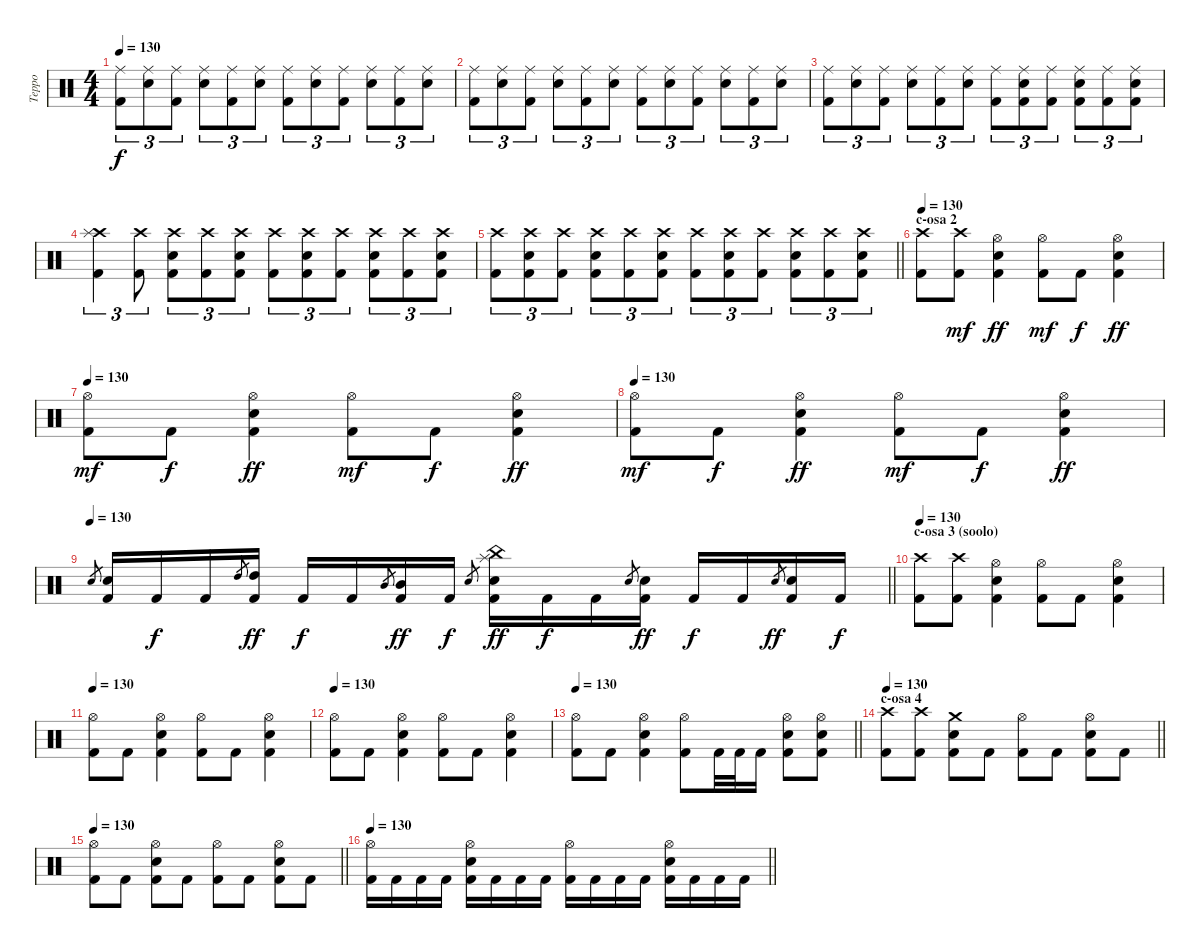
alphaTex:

\track ("Teppo" "Teppo") {instrument percussion}
\staff {score}
\articulation defaults
\ts (4 4)
\tempo 130
\clef neutral
\ks c
("Ride (middle)" "Kick (hit) 2").8{tu (3 2) dy f} ("Ride (middle)" "Electric Snare (hit)").8{tu (3 2)} ("Ride (middle)" "Kick (hit) 2").8{tu (3 2)} ("Ride (middle)" "Electric Snare (hit)").8{tu (3 2)} ("Ride (middle)" "Kick (hit) 2").8{tu (3 2)} ("Ride (middle)" "Electric Snare (hit)").8{tu (3 2)} ("Ride (middle)" "Kick (hit) 2").8{tu (3 2)} ("Ride (middle)" "Electric Snare (hit)").8{tu (3 2)} ("Ride (middle)" "Kick (hit) 2").8{tu (3 2)} ("Ride (middle)" "Electric Snare (hit)").8{tu (3 2)} ("Ride (middle)" "Kick (hit) 2").8{tu (3 2)} ("Ride (middle)" "Electric Snare (hit)").8{tu (3 2)} |
("Ride (middle)" "Kick (hit) 2").8{tu (3 2)} ("Ride (middle)" "Electric Snare (hit)").8{tu (3 2)} ("Ride (middle)" "Kick (hit) 2").8{tu (3 2)} ("Ride (middle)" "Electric Snare (hit)").8{tu (3 2)} ("Ride (middle)" "Kick (hit) 2").8{tu (3 2)} ("Ride (middle)" "Electric Snare (hit)").8{tu (3 2)} ("Ride (middle)" "Kick (hit) 2").8{tu (3 2)} ("Ride (middle)" "Electric Snare (hit)").8{tu (3 2)} ("Ride (middle)" "Kick (hit) 2").8{tu (3 2)} ("Ride (middle)" "Electric Snare (hit)").8{tu (3 2)} ("Ride (middle)" "Kick (hit) 2").8{tu (3 2)} ("Ride (middle)" "Electric Snare (hit)").8{tu (3 2)} |
("Ride (middle)" "Kick (hit) 2").8{tu (3 2)} ("Ride (middle)" "Electric Snare (hit)").8{tu (3 2)} ("Ride (middle)" "Kick (hit) 2").8{tu (3 2)} ("Ride (middle)" "Electric Snare (hit)").8{tu (3 2)} ("Ride (middle)" "Kick (hit) 2").8{tu (3 2)} ("Ride (middle)" "Electric Snare (hit)").8{tu (3 2)} ("Ride (middle)" "Kick (hit) 2").8{tu (3 2)} ("Ride (middle)" "Electric Snare (hit)" "Kick (hit) 2").8{tu (3 2)} ("Ride (middle)" "Kick (hit) 2").8{tu (3 2)} ("Ride (middle)" "Electric Snare (hit)" "Kick (hit) 2").8{tu (3 2)} ("Ride (middle)" "Kick (hit) 2").8{tu (3 2)} ("Ride (middle)" "Electric Snare (hit)" "Kick (hit) 2").8{tu (3 2)} |
("Crash high (hit)" "Splash (hit)" "Kick (hit) 2").4{tu (3 2)} ("Crash high (hit)" "Kick (hit) 2").8{tu (3 2)} ("Crash high (hit)" "Electric Snare (hit)" "Kick (hit) 2").8{tu (3 2)} ("Crash high (hit)" "Kick (hit) 2").8{tu (3 2)} ("Crash high (hit)" "Electric Snare (hit)" "Kick (hit) 2").8{tu (3 2)} ("Crash high (hit)" "Kick (hit) 2").8{tu (3 2)} ("Crash high (hit)" "Electric Snare (hit)" "Kick (hit) 2").8{tu (3 2)} ("Crash high (hit)" "Kick (hit) 2").8{tu (3 2)} ("Crash high (hit)" "Electric Snare (hit)" "Kick (hit) 2").8{tu (3 2)} ("Crash high (hit)" "Kick (hit) 2").8{tu (3 2)} ("Crash high (hit)" "Electric Snare (hit)" "Kick (hit) 2").8{tu (3 2)} |
\barLineRight lightlight
("Crash high (hit)" "Kick (hit) 2").8{tu (3 2)} ("Crash high (hit)" "Electric Snare (hit)" "Kick (hit) 2").8{tu (3 2)} ("Crash high (hit)" "Kick (hit) 2").8{tu (3 2)} ("Crash high (hit)" "Electric Snare (hit)" "Kick (hit) 2").8{tu (3 2)} ("Crash high (hit)" "Kick (hit) 2").8{tu (3 2)} ("Crash high (hit)" "Electric Snare (hit)" "Kick (hit) 2").8{tu (3 2)} ("Crash high (hit)" "Kick (hit) 2").8{tu (3 2)} ("Crash high (hit)" "Electric Snare (hit)" "Kick (hit) 2").8{tu (3 2)} ("Crash high (hit)" "Kick (hit) 2").8{tu (3 2)} ("Crash high (hit)" "Electric Snare (hit)" "Kick (hit) 2").8{tu (3 2)} ("Crash high (hit)" "Kick (hit) 2").8{tu (3 2)} ("Crash high (hit)" "Electric Snare (hit)" "Kick (hit) 2").8{tu (3 2)} |
\section ("" "c-osa 2")
\tempo 130
("Crash high (hit)" "Kick (hit) 2").8 ("Crash high (hit)" "Kick (hit) 2").8{dy mf} ("Hi-Hat (open)" "Electric Snare (hit)" "Kick (hit) 2").4{dy ff} ("Hi-Hat (open)" "Kick (hit) 2").8{dy mf} "Kick (hit) 2".8{dy f} ("Hi-Hat (open)" "Electric Snare (hit)" "Kick (hit) 2").4{dy ff} |
\tempo 130
("Hi-Hat (open)" "Kick (hit) 2").8{dy mf} "Kick (hit) 2".8{dy f} ("Hi-Hat (open)" "Electric Snare (hit)" "Kick (hit) 2").4{dy ff} ("Hi-Hat (open)" "Kick (hit) 2").8{dy mf} "Kick (hit) 2".8{dy f} ("Hi-Hat (open)" "Electric Snare (hit)" "Kick (hit) 2").4{dy ff} |
\tempo 130
("Hi-Hat (open)" "Kick (hit) 2").8{dy mf} "Kick (hit) 2".8{dy f} ("Hi-Hat (open)" "Electric Snare (hit)" "Kick (hit) 2").4{dy ff} ("Hi-Hat (open)" "Kick (hit) 2").8{dy mf} "Kick (hit) 2".8{dy f} ("Hi-Hat (open)" "Electric Snare (hit)" "Kick (hit) 2").4{dy ff} |
\tempo 130
\barLineRight lightlight "Electric Snare (hit)".8{gr}
("Electric Snare (hit)" "Kick (hit) 2").16 "Kick (hit) 2".16{dy f} "Kick (hit) 2".16 "High Tom (hit)".8{gr} ("High Tom (hit)" "Kick (hit) 2").16{dy ff} "Kick (hit) 2".16{dy f} "Kick (hit) 2".16 "Mid Tom (hit)".8{gr} ("Mid Tom (hit)" "Kick (hit) 2").16{dy ff} "Kick (hit) 2".16{dy f} "Electric Snare (hit)".8{gr} ("China (hit)" "Splash (hit)" "Electric Snare (hit)" "Kick (hit) 2").16{dy ff} "Kick (hit) 2".16{dy f} "Kick (hit) 2".16 "Electric Snare (hit)".8{gr} ("Electric Snare (hit)" "Kick (hit) 2").16{dy ff} "Kick (hit) 2".16{dy f} "Kick (hit) 2".16 "Electric Snare (hit)".8{gr dy ff} ("Electric Snare (hit)" "Kick (hit) 2").16 "Kick (hit) 2".16{dy f} |
\section ("" "c-osa 3 (soolo)")
\tempo 130
("Crash high (hit)" "Kick (hit) 2").8 ("Crash high (hit)" "Kick (hit) 2").8 ("Hi-Hat (open)" "Electric Snare (hit)" "Kick (hit) 2").4 ("Hi-Hat (open)" "Kick (hit) 2").8 "Kick (hit) 2".8 ("Hi-Hat (open)" "Electric Snare (hit)" "Kick (hit) 2").4 |
\tempo 130
("Hi-Hat (open)" "Kick (hit) 2").8 "Kick (hit) 2".8 ("Hi-Hat (open)" "Electric Snare (hit)" "Kick (hit) 2").4 ("Hi-Hat (open)" "Kick (hit) 2").8 "Kick (hit) 2".8 ("Hi-Hat (open)" "Electric Snare (hit)" "Kick (hit) 2").4 |
\tempo 130
("Hi-Hat (open)" "Kick (hit) 2").8 "Kick (hit) 2".8 ("Hi-Hat (open)" "Electric Snare (hit)" "Kick (hit) 2").4 ("Hi-Hat (open)" "Kick (hit) 2").8 "Kick (hit) 2".8 ("Hi-Hat (open)" "Electric Snare (hit)" "Kick (hit) 2").4 |
\tempo 130
\barLineRight lightlight
("Hi-Hat (open)" "Kick (hit) 2").8 "Kick (hit) 2".8 ("Hi-Hat (open)" "Electric Snare (hit)" "Kick (hit) 2").4 ("Hi-Hat (open)" "Kick (hit) 2").8 "Kick (hit) 2".32 "Kick (hit) 2".32 "Kick (hit) 2".16 ("Hi-Hat (open)" "Electric Snare (hit)" "Kick (hit) 2").8 ("Hi-Hat (open)" "Electric Snare (hit)" "Kick (hit) 2").8 |
\section ("" "c-osa 4")
\tempo 130
\barLineRight lightlight
("Crash high (hit)" "Kick (hit) 2").8 ("Crash high (hit)" "Kick (hit) 2").8 ("Crash medium (hit)" "Electric Snare (hit)" "Kick (hit) 2").8 "Kick (hit) 2".8 ("Hi-Hat (open)" "Kick (hit) 2").8 "Kick (hit) 2".8 ("Hi-Hat (open)" "Electric Snare (hit)" "Kick (hit) 2").8 "Kick (hit) 2".8 |
\tempo 130
\barLineRight lightlight
("Hi-Hat (open)" "Kick (hit) 2").8 "Kick (hit) 2".8 ("Hi-Hat (open)" "Electric Snare (hit)" "Kick (hit) 2").8 "Kick (hit) 2".8 ("Hi-Hat (open)" "Kick (hit) 2").8 "Kick (hit) 2".8 ("Hi-Hat (open)" "Electric Snare (hit)" "Kick (hit) 2").8 "Kick (hit) 2".8 |
\tempo 130
\barLineRight lightlight
("Hi-Hat (open)" "Kick (hit) 2").16 "Kick (hit) 2".16 "Kick (hit) 2".16 "Kick (hit) 2".16 ("Hi-Hat (open)" "Electric Snare (hit)" "Kick (hit) 2").16 "Kick (hit) 2".16 "Kick (hit) 2".16 "Kick (hit) 2".16 ("Hi-Hat (open)" "Kick (hit) 2").16 "Kick (hit) 2".16 "Kick (hit) 2".16 "Kick (hit) 2".16 ("Hi-Hat (open)" "Electric Snare (hit)" "Kick (hit) 2").16 "Kick (hit) 2".16 "Kick (hit) 2".16 "Kick (hit) 2".16
